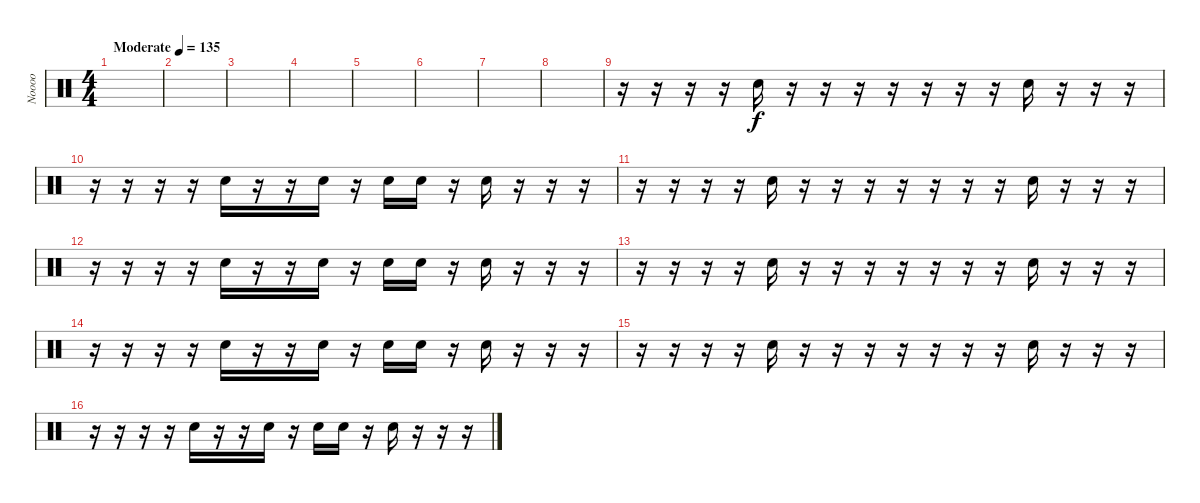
\track ("Noooo" "Noooo") {instrument percussion}
\staff {score}
\articulation defaults
\ts (4 4)
\tempo (135 "Moderate")
\clef neutral
\ks c
|
|
|
|
|
|
|
|
r.16 r.16 r.16 r.16 "Hand Clap (hit)".16 r.16 r.16 r.16 r.16 r.16 r.16 r.16 "Hand Clap (hit)".16 r.16 r.16 r.16 |
r.16 r.16 r.16 r.16 "Hand Clap (hit)".16 r.16 r.16 "Hand Clap (hit)".16 r.16 "Hand Clap (hit)".16 "Hand Clap (hit)".16 r.16 "Hand Clap (hit)".16 r.16 r.16 r.16 |
r.16 r.16 r.16 r.16 "Hand Clap (hit)".16 r.16 r.16 r.16 r.16 r.16 r.16 r.16 "Hand Clap (hit)".16 r.16 r.16 r.16 |
r.16 r.16 r.16 r.16 "Hand Clap (hit)".16 r.16 r.16 "Hand Clap (hit)".16 r.16 "Hand Clap (hit)".16 "Hand Clap (hit)".16 r.16 "Hand Clap (hit)".16 r.16 r.16 r.16 |
r.16 r.16 r.16 r.16 "Hand Clap (hit)".16 r.16 r.16 r.16 r.16 r.16 r.16 r.16 "Hand Clap (hit)".16 r.16 r.16 r.16 |
r.16 r.16 r.16 r.16 "Hand Clap (hit)".16 r.16 r.16 "Hand Clap (hit)".16 r.16 "Hand Clap (hit)".16 "Hand Clap (hit)".16 r.16 "Hand Clap (hit)".16 r.16 r.16 r.16 |
r.16 r.16 r.16 r.16 "Hand Clap (hit)".16 r.16 r.16 r.16 r.16 r.16 r.16 r.16 "Hand Clap (hit)".16 r.16 r.16 r.16 |
r.16 r.16 r.16 r.16 "Hand Clap (hit)".16 r.16 r.16 "Hand Clap (hit)".16 r.16 "Hand Clap (hit)".16 "Hand Clap (hit)".16 r.16 "Hand Clap (hit)".16 r.16 r.16 r.16
